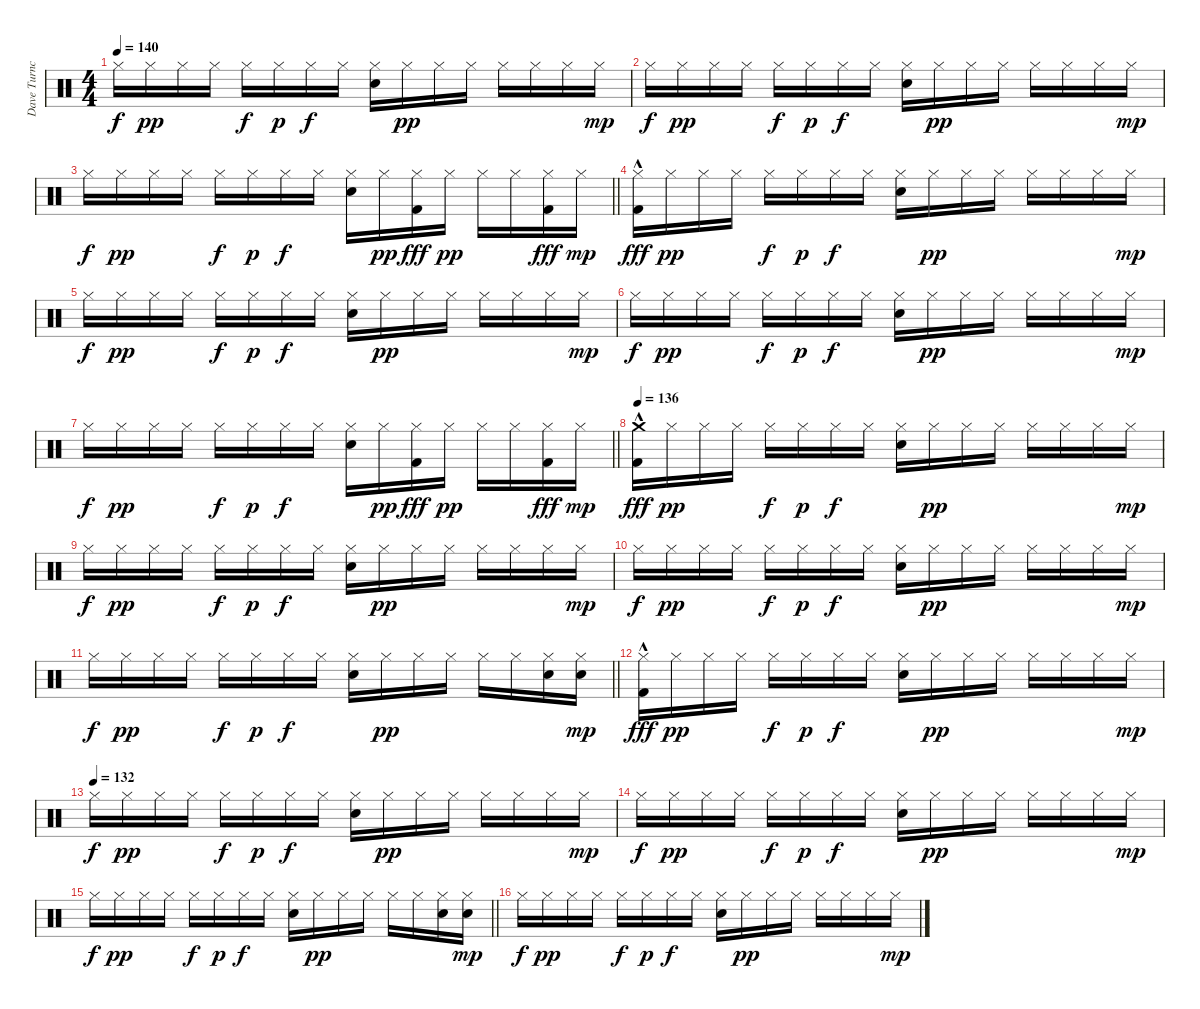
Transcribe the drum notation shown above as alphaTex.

\track ("Dave Turncrantz" "Dave Turnc") {instrument percussion}
\staff {score}
\articulation defaults
\ts (4 4)
\tempo 140
\clef neutral
\ks c "Hi-Hat (closed)".16{dy f} "Hi-Hat (closed)".16{dy pp} "Hi-Hat (closed)".16 "Hi-Hat (closed)".16 "Hi-Hat (closed)".16{dy f} "Hi-Hat (closed)".16{dy p} "Hi-Hat (closed)".16{dy f} "Hi-Hat (closed)".16
("Hi-Hat (closed)" "Electric Snare (hit)").16 "Hi-Hat (closed)".16{dy pp} "Hi-Hat (closed)".16 "Hi-Hat (closed)".16 "Hi-Hat (closed)".16 "Hi-Hat (closed)".16 "Hi-Hat (closed)".16 "Hi-Hat (closed)".16{dy mp} |
"Hi-Hat (closed)".16{dy f} "Hi-Hat (closed)".16{dy pp} "Hi-Hat (closed)".16 "Hi-Hat (closed)".16 "Hi-Hat (closed)".16{dy f} "Hi-Hat (closed)".16{dy p} "Hi-Hat (closed)".16{dy f} "Hi-Hat (closed)".16 ("Hi-Hat (closed)" "Electric Snare (hit)").16 "Hi-Hat (closed)".16{dy pp} "Hi-Hat (closed)".16 "Hi-Hat (closed)".16 "Hi-Hat (closed)".16 "Hi-Hat (closed)".16 "Hi-Hat (closed)".16 "Hi-Hat (closed)".16{dy mp} |
\barLineRight lightlight "Hi-Hat (closed)".16{dy f} "Hi-Hat (closed)".16{dy pp} "Hi-Hat (closed)".16 "Hi-Hat (closed)".16 "Hi-Hat (closed)".16{dy f} "Hi-Hat (closed)".16{dy p} "Hi-Hat (closed)".16{dy f} "Hi-Hat (closed)".16
("Hi-Hat (closed)" "Electric Snare (hit)").16 "Hi-Hat (closed)".16{dy pp} ("Hi-Hat (closed)" "Kick (hit) 2").16{dy fff} "Hi-Hat (closed)".16{dy pp} "Hi-Hat (closed)".16 "Hi-Hat (closed)".16 ("Hi-Hat (closed)" "Kick (hit) 2").16{dy fff} "Hi-Hat (closed)".16{dy mp} |
\section ("" "")
("Hi-Hat (closed)" "Kick (hit) 2"{hac}).16{dy fff} "Hi-Hat (closed)".16{dy pp} "Hi-Hat (closed)".16 "Hi-Hat (closed)".16 "Hi-Hat (closed)".16{dy f} "Hi-Hat (closed)".16{dy p} "Hi-Hat (closed)".16{dy f} "Hi-Hat (closed)".16 ("Hi-Hat (closed)" "Electric Snare (hit)").16 "Hi-Hat (closed)".16{dy pp} "Hi-Hat (closed)".16 "Hi-Hat (closed)".16 "Hi-Hat (closed)".16 "Hi-Hat (closed)".16 "Hi-Hat (closed)".16 "Hi-Hat (closed)".16{dy mp} |
"Hi-Hat (closed)".16{dy f} "Hi-Hat (closed)".16{dy pp} "Hi-Hat (closed)".16 "Hi-Hat (closed)".16 "Hi-Hat (closed)".16{dy f} "Hi-Hat (closed)".16{dy p} "Hi-Hat (closed)".16{dy f} "Hi-Hat (closed)".16 ("Hi-Hat (closed)" "Electric Snare (hit)").16 "Hi-Hat (closed)".16{dy pp} "Hi-Hat (closed)".16 "Hi-Hat (closed)".16 "Hi-Hat (closed)".16 "Hi-Hat (closed)".16 "Hi-Hat (closed)".16 "Hi-Hat (closed)".16{dy mp} |
"Hi-Hat (closed)".16{dy f} "Hi-Hat (closed)".16{dy pp} "Hi-Hat (closed)".16 "Hi-Hat (closed)".16 "Hi-Hat (closed)".16{dy f} "Hi-Hat (closed)".16{dy p} "Hi-Hat (closed)".16{dy f} "Hi-Hat (closed)".16 ("Hi-Hat (closed)" "Electric Snare (hit)").16 "Hi-Hat (closed)".16{dy pp} "Hi-Hat (closed)".16 "Hi-Hat (closed)".16 "Hi-Hat (closed)".16 "Hi-Hat (closed)".16 "Hi-Hat (closed)".16 "Hi-Hat (closed)".16{dy mp} |
\barLineRight lightlight "Hi-Hat (closed)".16{dy f} "Hi-Hat (closed)".16{dy pp} "Hi-Hat (closed)".16 "Hi-Hat (closed)".16 "Hi-Hat (closed)".16{dy f} "Hi-Hat (closed)".16{dy p} "Hi-Hat (closed)".16{dy f} "Hi-Hat (closed)".16
("Hi-Hat (closed)" "Electric Snare (hit)").16 "Hi-Hat (closed)".16{dy pp} ("Hi-Hat (closed)" "Kick (hit) 2").16{dy fff} "Hi-Hat (closed)".16{dy pp} "Hi-Hat (closed)".16 "Hi-Hat (closed)".16 ("Hi-Hat (closed)" "Kick (hit) 2").16{dy fff} "Hi-Hat (closed)".16{dy mp} |
\section ("" "")
\tempo 136
("Crash medium (hit)" "Kick (hit) 2"{hac}).16{dy fff} "Hi-Hat (closed)".16{dy pp} "Hi-Hat (closed)".16 "Hi-Hat (closed)".16 "Hi-Hat (closed)".16{dy f} "Hi-Hat (closed)".16{dy p} "Hi-Hat (closed)".16{dy f} "Hi-Hat (closed)".16 ("Hi-Hat (closed)" "Electric Snare (hit)").16 "Hi-Hat (closed)".16{dy pp} "Hi-Hat (closed)".16 "Hi-Hat (closed)".16 "Hi-Hat (closed)".16 "Hi-Hat (closed)".16 "Hi-Hat (closed)".16 "Hi-Hat (closed)".16{dy mp} |
"Hi-Hat (closed)".16{dy f} "Hi-Hat (closed)".16{dy pp} "Hi-Hat (closed)".16 "Hi-Hat (closed)".16 "Hi-Hat (closed)".16{dy f} "Hi-Hat (closed)".16{dy p} "Hi-Hat (closed)".16{dy f} "Hi-Hat (closed)".16 ("Hi-Hat (closed)" "Electric Snare (hit)").16 "Hi-Hat (closed)".16{dy pp} "Hi-Hat (closed)".16 "Hi-Hat (closed)".16 "Hi-Hat (closed)".16 "Hi-Hat (closed)".16 "Hi-Hat (closed)".16 "Hi-Hat (closed)".16{dy mp} |
"Hi-Hat (closed)".16{dy f} "Hi-Hat (closed)".16{dy pp} "Hi-Hat (closed)".16 "Hi-Hat (closed)".16 "Hi-Hat (closed)".16{dy f} "Hi-Hat (closed)".16{dy p} "Hi-Hat (closed)".16{dy f} "Hi-Hat (closed)".16 ("Hi-Hat (closed)" "Electric Snare (hit)").16 "Hi-Hat (closed)".16{dy pp} "Hi-Hat (closed)".16 "Hi-Hat (closed)".16 "Hi-Hat (closed)".16 "Hi-Hat (closed)".16 "Hi-Hat (closed)".16 "Hi-Hat (closed)".16{dy mp} |
\barLineRight lightlight "Hi-Hat (closed)".16{dy f} "Hi-Hat (closed)".16{dy pp} "Hi-Hat (closed)".16 "Hi-Hat (closed)".16 "Hi-Hat (closed)".16{dy f} "Hi-Hat (closed)".16{dy p} "Hi-Hat (closed)".16{dy f} "Hi-Hat (closed)".16
("Hi-Hat (closed)" "Electric Snare (hit)").16 "Hi-Hat (closed)".16{dy pp} "Hi-Hat (closed)".16 "Hi-Hat (closed)".16 "Hi-Hat (closed)".16 "Hi-Hat (closed)".16 ("Hi-Hat (closed)" "Electric Snare (hit)").16 ("Hi-Hat (closed)" "Electric Snare (hit)").16{dy mp} |
\section ("" "")
("Hi-Hat (closed)" "Kick (hit) 2"{hac}).16{dy fff} "Hi-Hat (closed)".16{dy pp} "Hi-Hat (closed)".16 "Hi-Hat (closed)".16 "Hi-Hat (closed)".16{dy f} "Hi-Hat (closed)".16{dy p} "Hi-Hat (closed)".16{dy f} "Hi-Hat (closed)".16 ("Hi-Hat (closed)" "Electric Snare (hit)").16 "Hi-Hat (closed)".16{dy pp} "Hi-Hat (closed)".16 "Hi-Hat (closed)".16 "Hi-Hat (closed)".16 "Hi-Hat (closed)".16 "Hi-Hat (closed)".16 "Hi-Hat (closed)".16{dy mp} |
\tempo (132)
"Hi-Hat (closed)".16{dy f} "Hi-Hat (closed)".16{dy pp} "Hi-Hat (closed)".16 "Hi-Hat (closed)".16 "Hi-Hat (closed)".16{dy f} "Hi-Hat (closed)".16{dy p} "Hi-Hat (closed)".16{dy f} "Hi-Hat (closed)".16 ("Hi-Hat (closed)" "Electric Snare (hit)").16 "Hi-Hat (closed)".16{dy pp} "Hi-Hat (closed)".16 "Hi-Hat (closed)".16 "Hi-Hat (closed)".16 "Hi-Hat (closed)".16 "Hi-Hat (closed)".16 "Hi-Hat (closed)".16{dy mp} |
"Hi-Hat (closed)".16{dy f} "Hi-Hat (closed)".16{dy pp} "Hi-Hat (closed)".16 "Hi-Hat (closed)".16 "Hi-Hat (closed)".16{dy f} "Hi-Hat (closed)".16{dy p} "Hi-Hat (closed)".16{dy f} "Hi-Hat (closed)".16 ("Hi-Hat (closed)" "Electric Snare (hit)").16 "Hi-Hat (closed)".16{dy pp} "Hi-Hat (closed)".16 "Hi-Hat (closed)".16 "Hi-Hat (closed)".16 "Hi-Hat (closed)".16 "Hi-Hat (closed)".16 "Hi-Hat (closed)".16{dy mp} |
\barLineRight lightlight "Hi-Hat (closed)".16{dy f} "Hi-Hat (closed)".16{dy pp} "Hi-Hat (closed)".16 "Hi-Hat (closed)".16 "Hi-Hat (closed)".16{dy f} "Hi-Hat (closed)".16{dy p} "Hi-Hat (closed)".16{dy f} "Hi-Hat (closed)".16
("Hi-Hat (closed)" "Electric Snare (hit)").16 "Hi-Hat (closed)".16{dy pp} "Hi-Hat (closed)".16 "Hi-Hat (closed)".16 "Hi-Hat (closed)".16 "Hi-Hat (closed)".16 ("Hi-Hat (closed)" "Electric Snare (hit)").16 ("Hi-Hat (closed)" "Electric Snare (hit)").16{dy mp} |
\section ("" "")
"Hi-Hat (closed)".16{dy f} "Hi-Hat (closed)".16{dy pp} "Hi-Hat (closed)".16 "Hi-Hat (closed)".16 "Hi-Hat (closed)".16{dy f} "Hi-Hat (closed)".16{dy p} "Hi-Hat (closed)".16{dy f} "Hi-Hat (closed)".16 ("Hi-Hat (closed)" "Electric Snare (hit)").16 "Hi-Hat (closed)".16{dy pp} "Hi-Hat (closed)".16 "Hi-Hat (closed)".16 "Hi-Hat (closed)".16 "Hi-Hat (closed)".16 "Hi-Hat (closed)".16 "Hi-Hat (closed)".16{dy mp}
